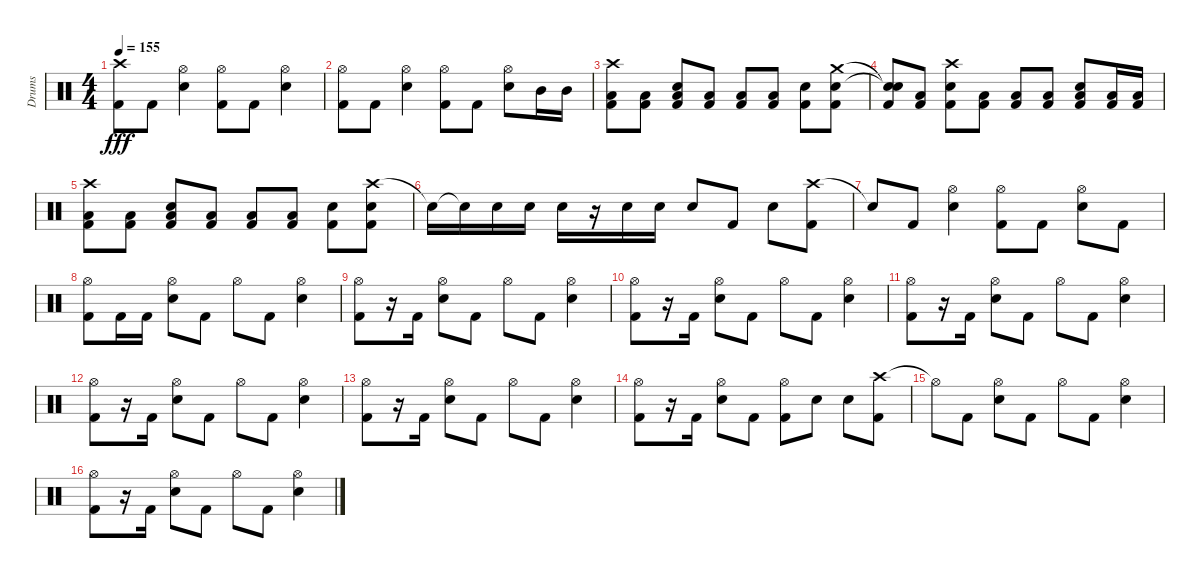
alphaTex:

\track ("Drums" "Drums") {instrument percussion}
\staff {score}
\articulation defaults
\ts (4 4)
\tempo 155
\clef neutral
\ks c
("Crash high (hit)" "Kick (hit) 2").8{dy fff} "Kick (hit) 2".8 ("Hi-Hat (open)" "Electric Snare (hit)").4 ("Hi-Hat (open)" "Kick (hit) 2").8 "Kick (hit) 2".8 ("Hi-Hat (open)" "Electric Snare (hit)").4 |
("Hi-Hat (open)" "Kick (hit) 2").8 "Kick (hit) 2".8 ("Hi-Hat (open)" "Electric Snare (hit)").4 ("Hi-Hat (open)" "Kick (hit) 2").8 "Kick (hit) 2".8 ("Hi-Hat (open)" "Electric Snare (hit)").8 "Mid Tom (hit)".16 "Mid Tom (hit)".16 |
("Crash high (hit)" "Low Floor Tom (hit)" "Kick (hit) 2").8 ("Low Floor Tom (hit)" "Kick (hit) 2").8 ("Low Floor Tom (hit)" "Electric Snare (hit)" "Kick (hit) 2").8 ("Low Floor Tom (hit)" "Kick (hit) 2").8 ("Low Floor Tom (hit)" "Kick (hit) 2").8 ("Low Floor Tom (hit)" "Kick (hit) 2").8 ("Electric Snare (hit)" "Kick (hit) 2").8 ("Crash medium (hit)" "Electric Snare (hit)" "Kick (hit) 2").8 |
("Snare (hit)"{t} "Snare (hit)"{t} "Kick (hit) 2").8 ("Low Floor Tom (hit)" "Kick (hit) 2").8 ("Crash high (hit)" "Electric Snare (hit)" "Kick (hit) 2").8 ("Low Floor Tom (hit)" "Kick (hit) 2").8 ("Low Floor Tom (hit)" "Kick (hit) 2").8 ("Low Floor Tom (hit)" "Kick (hit) 2").8 ("Low Floor Tom (hit)" "Electric Snare (hit)" "Kick (hit) 2").8 ("Low Floor Tom (hit)" "Kick (hit) 2").16 ("Low Tom (hit)" "Kick (hit) 2").16 |
("Crash high (hit)" "Low Floor Tom (hit)" "Kick (hit) 2").8 ("Low Floor Tom (hit)" "Kick (hit) 2").8 ("Low Floor Tom (hit)" "Electric Snare (hit)" "Kick (hit) 2").8 ("Low Floor Tom (hit)" "Kick (hit) 2").8 ("Low Floor Tom (hit)" "Kick (hit) 2").8 ("Low Floor Tom (hit)" "Kick (hit) 2").8 ("Electric Snare (hit)" "Kick (hit) 2").8 ("Crash high (hit)" "Electric Snare (hit)" "Kick (hit) 2").8 |
"Electric Snare (hit)"{t}.16 "Snare (hit)"{t}.16 "Electric Snare (hit)".16 "Electric Snare (hit)".16 "Electric Snare (hit)".16 r.16 "Electric Snare (hit)".16 "Electric Snare (hit)".16 "Electric Snare (hit)".8 "Kick (hit) 2".8 "Electric Snare (hit)".8 ("Crash high (hit)" "Kick (hit) 2").8 |
"Snare (hit)"{t}.8 "Kick (hit) 2".8 ("Hi-Hat (open)" "Electric Snare (hit)").4 ("Hi-Hat (open)" "Kick (hit) 2").8 "Kick (hit) 2".8 ("Hi-Hat (open)" "Electric Snare (hit)").8 "Kick (hit) 2".8 |
("Hi-Hat (open)" "Kick (hit) 2").8 "Kick (hit) 2".16 "Kick (hit) 2".16 ("Hi-Hat (open)" "Electric Snare (hit)").8 "Kick (hit) 2".8 "Hi-Hat (open)".8 "Kick (hit) 2".8 ("Hi-Hat (open)" "Electric Snare (hit)").4 |
("Hi-Hat (open)" "Kick (hit) 2").8 r.16 "Kick (hit) 2".16 ("Hi-Hat (open)" "Electric Snare (hit)").8 "Kick (hit) 2".8 "Hi-Hat (open)".8 "Kick (hit) 2".8 ("Hi-Hat (open)" "Electric Snare (hit)").4 |
("Hi-Hat (open)" "Kick (hit) 2").8 r.16 "Kick (hit) 2".16 ("Hi-Hat (open)" "Electric Snare (hit)").8 "Kick (hit) 2".8 "Hi-Hat (open)".8 "Kick (hit) 2".8 ("Hi-Hat (open)" "Electric Snare (hit)").4 |
("Hi-Hat (open)" "Kick (hit) 2").8 r.16 "Kick (hit) 2".16 ("Hi-Hat (open)" "Electric Snare (hit)").8 "Kick (hit) 2".8 "Hi-Hat (open)".8 "Kick (hit) 2".8 ("Hi-Hat (open)" "Electric Snare (hit)").4 |
("Hi-Hat (open)" "Kick (hit) 2").8 r.16 "Kick (hit) 2".16 ("Hi-Hat (open)" "Electric Snare (hit)").8 "Kick (hit) 2".8 "Hi-Hat (open)".8 "Kick (hit) 2".8 ("Hi-Hat (open)" "Electric Snare (hit)").4 |
("Hi-Hat (open)" "Kick (hit) 2").8 r.16 "Kick (hit) 2".16 ("Hi-Hat (open)" "Electric Snare (hit)").8 "Kick (hit) 2".8 "Hi-Hat (open)".8 "Kick (hit) 2".8 ("Hi-Hat (open)" "Electric Snare (hit)").4 |
("Hi-Hat (open)" "Kick (hit) 2").8 r.16 "Kick (hit) 2".16 ("Hi-Hat (open)" "Electric Snare (hit)").8 "Kick (hit) 2".8 ("Hi-Hat (open)" "Kick (hit) 2").8 "Electric Snare (hit)".8 "Electric Snare (hit)".8 ("Crash high (hit)" "Kick (hit) 2").8 |
"Hi-Hat (open)"{t}.8 "Kick (hit) 2".8 ("Hi-Hat (open)" "Electric Snare (hit)").8 "Kick (hit) 2".8 "Hi-Hat (open)".8 "Kick (hit) 2".8 ("Hi-Hat (open)" "Electric Snare (hit)").4 |
("Hi-Hat (open)" "Kick (hit) 2").8 r.16 "Kick (hit) 2".16 ("Hi-Hat (open)" "Electric Snare (hit)").8 "Kick (hit) 2".8 "Hi-Hat (open)".8 "Kick (hit) 2".8 ("Hi-Hat (open)" "Electric Snare (hit)").4
